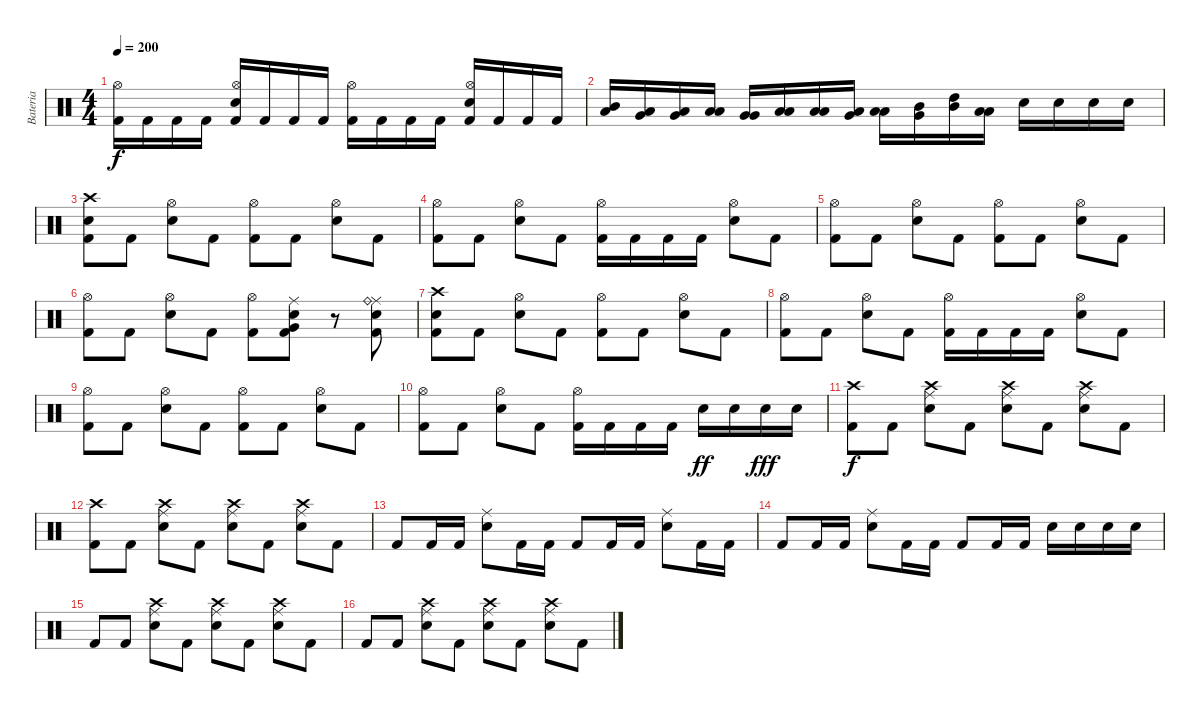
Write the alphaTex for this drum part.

\track ("Bateria" "Bateria") {instrument percussion}
\staff {score}
\articulation defaults
\ts (4 4)
\tempo 200
\clef neutral
\ks c
("Kick (hit) 2" "Hi-Hat (open)").16{dy f} "Kick (hit) 2".16 "Kick (hit) 2".16 "Kick (hit) 2".16 ("Kick (hit) 2" "Electric Snare (hit)" "Hi-Hat (open)").16 "Kick (hit) 2".16 "Kick (hit) 2".16 "Kick (hit) 2".16 ("Kick (hit) 2" "Hi-Hat (open)").16 "Kick (hit) 2".16 "Kick (hit) 2".16 "Kick (hit) 2".16 ("Kick (hit) 2" "Electric Snare (hit)" "Hi-Hat (open)").16 "Kick (hit) 2".16 "Kick (hit) 2".16 "Kick (hit) 2".16 |
("Mid Tom (hit)" "Low Tom (hit)").16 ("Low Tom (hit)" "Very Low Tom (hit)").16 ("Very Low Tom (hit)" "Low Floor Tom (hit)").16 ("Low Tom (hit)" "Low Tom (hit)").16 ("Very Low Tom (hit)" "Very Low Tom (hit)").16 ("Low Floor Tom (hit)" "Low Floor Tom (hit)").16 ("Low Floor Tom (hit)" "Low Tom (hit)").16 ("Low Tom (hit)" "Very Low Tom (hit)").16 ("Low Tom (hit)" "Low Tom (hit)").16 ("Very Low Tom (hit)" "Mid Tom (hit)").16 ("Mid Tom (hit)" "High Tom (hit)").16 ("Low Floor Tom (hit)" "Low Floor Tom (hit)").16 "Electric Snare (hit)".16 "Electric Snare (hit)".16 "Electric Snare (hit)".16 "Electric Snare (hit)".16 |
("Kick (hit) 2" "Electric Snare (hit)" "Crash high (hit)").8 "Kick (hit) 2".8 ("Electric Snare (hit)" "Hi-Hat (open)").8 "Kick (hit) 2".8 ("Kick (hit) 2" "Hi-Hat (open)").8 "Kick (hit) 2".8 ("Electric Snare (hit)" "Hi-Hat (open)").8 "Kick (hit) 2".8 |
("Kick (hit) 2" "Hi-Hat (open)").8 "Kick (hit) 2".8 ("Electric Snare (hit)" "Hi-Hat (open)").8 "Kick (hit) 2".8 ("Kick (hit) 2" "Hi-Hat (open)").16 "Kick (hit) 2".16 "Kick (hit) 2".16 "Kick (hit) 2".16 ("Electric Snare (hit)" "Hi-Hat (open)").8 "Kick (hit) 2".8 |
("Kick (hit) 2" "Hi-Hat (open)").8 "Kick (hit) 2".8 ("Electric Snare (hit)" "Hi-Hat (open)").8 "Kick (hit) 2".8 ("Kick (hit) 2" "Hi-Hat (open)").8 "Kick (hit) 2".8 ("Electric Snare (hit)" "Hi-Hat (open)").8 "Kick (hit) 2".8 |
("Kick (hit) 2" "Hi-Hat (open)").8 "Kick (hit) 2".8 ("Electric Snare (hit)" "Hi-Hat (open)").8 "Kick (hit) 2".8 ("Kick (hit) 2" "Hi-Hat (open)").8 ("Kick (hit) 2" "Electric Snare (hit)" "Ride (middle)" "Very Low Tom (hit)").8 r.8 ("Kick (hit) 2" "Electric Snare (hit)" "Ride (middle)" "Ride (bell)").8 |
("Kick (hit) 2" "Electric Snare (hit)" "Crash high (hit)").8 "Kick (hit) 2".8 ("Electric Snare (hit)" "Hi-Hat (open)").8 "Kick (hit) 2".8 ("Kick (hit) 2" "Hi-Hat (open)").8 "Kick (hit) 2".8 ("Electric Snare (hit)" "Hi-Hat (open)").8 "Kick (hit) 2".8 |
("Kick (hit) 2" "Hi-Hat (open)").8 "Kick (hit) 2".8 ("Electric Snare (hit)" "Hi-Hat (open)").8 "Kick (hit) 2".8 ("Kick (hit) 2" "Hi-Hat (open)").16 "Kick (hit) 2".16 "Kick (hit) 2".16 "Kick (hit) 2".16 ("Electric Snare (hit)" "Hi-Hat (open)").8 "Kick (hit) 2".8 |
("Kick (hit) 2" "Hi-Hat (open)").8 "Kick (hit) 2".8 ("Electric Snare (hit)" "Hi-Hat (open)").8 "Kick (hit) 2".8 ("Kick (hit) 2" "Hi-Hat (open)").8 "Kick (hit) 2".8 ("Electric Snare (hit)" "Hi-Hat (open)").8 "Kick (hit) 2".8 |
("Kick (hit) 2" "Hi-Hat (open)").8 "Kick (hit) 2".8 ("Electric Snare (hit)" "Hi-Hat (open)").8 "Kick (hit) 2".8 ("Kick (hit) 2" "Hi-Hat (open)").16 "Kick (hit) 2".16 "Kick (hit) 2".16 "Kick (hit) 2".16 "Electric Snare (hit)".16{dy ff} "Electric Snare (hit)".16 "Electric Snare (hit)".16{dy fff} "Electric Snare (hit)".16 |
("Kick (hit) 2" "Crash high (hit)").8{dy f} "Kick (hit) 2".8 ("Crash high (hit)" "Electric Snare (hit)" "Ride (middle)").8 "Kick (hit) 2".8 ("Crash high (hit)" "Electric Snare (hit)" "Ride (middle)").8 "Kick (hit) 2".8 ("Crash high (hit)" "Electric Snare (hit)" "Ride (middle)").8 "Kick (hit) 2".8 |
("Kick (hit) 2" "Crash high (hit)").8 "Kick (hit) 2".8 ("Crash high (hit)" "Electric Snare (hit)" "Ride (middle)").8 "Kick (hit) 2".8 ("Crash high (hit)" "Electric Snare (hit)" "Ride (middle)").8 "Kick (hit) 2".8 ("Crash high (hit)" "Electric Snare (hit)" "Ride (middle)").8 "Kick (hit) 2".8 |
"Kick (hit) 2".8 "Kick (hit) 2".16 "Kick (hit) 2".16 ("Electric Snare (hit)" "Ride (middle)").8 "Kick (hit) 2".16 "Kick (hit) 2".16 "Kick (hit) 2".8 "Kick (hit) 2".16 "Kick (hit) 2".16 ("Electric Snare (hit)" "Ride (middle)").8 "Kick (hit) 2".16 "Kick (hit) 2".16 |
"Kick (hit) 2".8 "Kick (hit) 2".16 "Kick (hit) 2".16 ("Electric Snare (hit)" "Ride (middle)").8 "Kick (hit) 2".16 "Kick (hit) 2".16 "Kick (hit) 2".8 "Kick (hit) 2".16 "Kick (hit) 2".16 "Electric Snare (hit)".16 "Electric Snare (hit)".16 "Electric Snare (hit)".16 "Electric Snare (hit)".16 |
"Kick (hit) 2".8 "Kick (hit) 2".8 ("Crash high (hit)" "Electric Snare (hit)" "Ride (middle)").8 "Kick (hit) 2".8 ("Crash high (hit)" "Electric Snare (hit)" "Ride (middle)").8 "Kick (hit) 2".8 ("Crash high (hit)" "Electric Snare (hit)" "Ride (middle)").8 "Kick (hit) 2".8 |
"Kick (hit) 2".8 "Kick (hit) 2".8 ("Crash high (hit)" "Electric Snare (hit)" "Ride (middle)").8 "Kick (hit) 2".8 ("Crash high (hit)" "Electric Snare (hit)" "Ride (middle)").8 "Kick (hit) 2".8 ("Crash high (hit)" "Electric Snare (hit)" "Ride (middle)").8 "Kick (hit) 2".8
